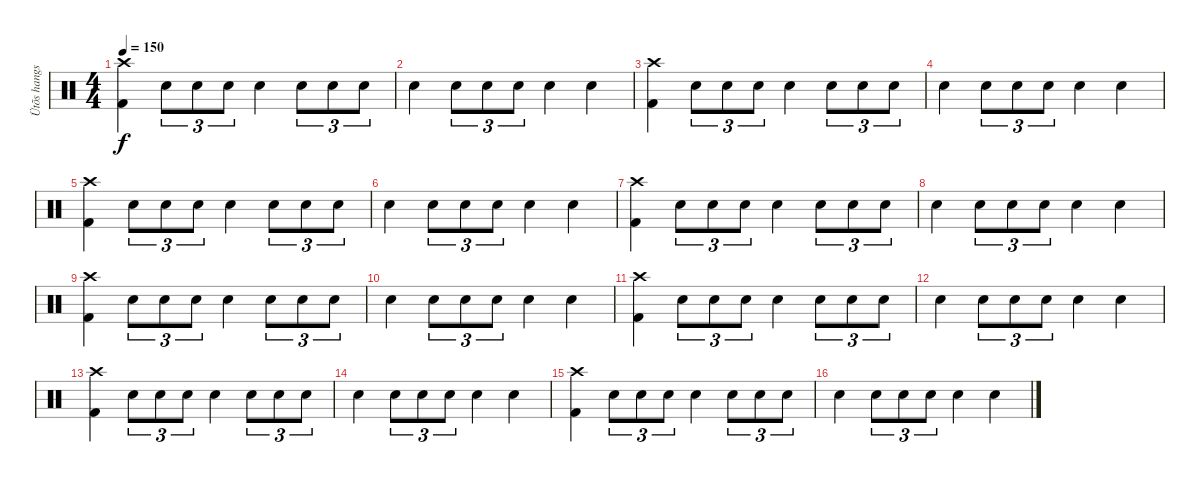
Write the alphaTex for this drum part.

\track ("Ütõs hangszer" "Ütõs hangs") {instrument percussion}
\staff {score}
\articulation defaults
\ts (4 4)
\tempo 150
\clef neutral
\ks c
("Crash high (hit)" "Kick (hit) 2").4{dy f} "Electric Snare (hit)".8{tu (3 2)} "Electric Snare (hit)".8{tu (3 2)} "Electric Snare (hit)".8{tu (3 2)} "Electric Snare (hit)".4 "Electric Snare (hit)".8{tu (3 2)} "Electric Snare (hit)".8{tu (3 2)} "Electric Snare (hit)".8{tu (3 2)} |
"Electric Snare (hit)".4 "Electric Snare (hit)".8{tu (3 2)} "Electric Snare (hit)".8{tu (3 2)} "Electric Snare (hit)".8{tu (3 2)} "Electric Snare (hit)".4 "Electric Snare (hit)".4 |
("Crash high (hit)" "Kick (hit) 2").4 "Electric Snare (hit)".8{tu (3 2)} "Electric Snare (hit)".8{tu (3 2)} "Electric Snare (hit)".8{tu (3 2)} "Electric Snare (hit)".4 "Electric Snare (hit)".8{tu (3 2)} "Electric Snare (hit)".8{tu (3 2)} "Electric Snare (hit)".8{tu (3 2)} |
"Electric Snare (hit)".4 "Electric Snare (hit)".8{tu (3 2)} "Electric Snare (hit)".8{tu (3 2)} "Electric Snare (hit)".8{tu (3 2)} "Electric Snare (hit)".4 "Electric Snare (hit)".4 |
("Crash high (hit)" "Kick (hit) 2").4 "Electric Snare (hit)".8{tu (3 2)} "Electric Snare (hit)".8{tu (3 2)} "Electric Snare (hit)".8{tu (3 2)} "Electric Snare (hit)".4 "Electric Snare (hit)".8{tu (3 2)} "Electric Snare (hit)".8{tu (3 2)} "Electric Snare (hit)".8{tu (3 2)} |
"Electric Snare (hit)".4 "Electric Snare (hit)".8{tu (3 2)} "Electric Snare (hit)".8{tu (3 2)} "Electric Snare (hit)".8{tu (3 2)} "Electric Snare (hit)".4 "Electric Snare (hit)".4 |
("Crash high (hit)" "Kick (hit) 2").4 "Electric Snare (hit)".8{tu (3 2)} "Electric Snare (hit)".8{tu (3 2)} "Electric Snare (hit)".8{tu (3 2)} "Electric Snare (hit)".4 "Electric Snare (hit)".8{tu (3 2)} "Electric Snare (hit)".8{tu (3 2)} "Electric Snare (hit)".8{tu (3 2)} |
"Electric Snare (hit)".4 "Electric Snare (hit)".8{tu (3 2)} "Electric Snare (hit)".8{tu (3 2)} "Electric Snare (hit)".8{tu (3 2)} "Electric Snare (hit)".4 "Electric Snare (hit)".4 |
("Crash high (hit)" "Kick (hit) 2").4 "Electric Snare (hit)".8{tu (3 2)} "Electric Snare (hit)".8{tu (3 2)} "Electric Snare (hit)".8{tu (3 2)} "Electric Snare (hit)".4 "Electric Snare (hit)".8{tu (3 2)} "Electric Snare (hit)".8{tu (3 2)} "Electric Snare (hit)".8{tu (3 2)} |
"Electric Snare (hit)".4 "Electric Snare (hit)".8{tu (3 2)} "Electric Snare (hit)".8{tu (3 2)} "Electric Snare (hit)".8{tu (3 2)} "Electric Snare (hit)".4 "Electric Snare (hit)".4 |
("Crash high (hit)" "Kick (hit) 2").4 "Electric Snare (hit)".8{tu (3 2)} "Electric Snare (hit)".8{tu (3 2)} "Electric Snare (hit)".8{tu (3 2)} "Electric Snare (hit)".4 "Electric Snare (hit)".8{tu (3 2)} "Electric Snare (hit)".8{tu (3 2)} "Electric Snare (hit)".8{tu (3 2)} |
"Electric Snare (hit)".4 "Electric Snare (hit)".8{tu (3 2)} "Electric Snare (hit)".8{tu (3 2)} "Electric Snare (hit)".8{tu (3 2)} "Electric Snare (hit)".4 "Electric Snare (hit)".4 |
("Crash high (hit)" "Kick (hit) 2").4 "Electric Snare (hit)".8{tu (3 2)} "Electric Snare (hit)".8{tu (3 2)} "Electric Snare (hit)".8{tu (3 2)} "Electric Snare (hit)".4 "Electric Snare (hit)".8{tu (3 2)} "Electric Snare (hit)".8{tu (3 2)} "Electric Snare (hit)".8{tu (3 2)} |
"Electric Snare (hit)".4 "Electric Snare (hit)".8{tu (3 2)} "Electric Snare (hit)".8{tu (3 2)} "Electric Snare (hit)".8{tu (3 2)} "Electric Snare (hit)".4 "Electric Snare (hit)".4 |
("Crash high (hit)" "Kick (hit) 2").4 "Electric Snare (hit)".8{tu (3 2)} "Electric Snare (hit)".8{tu (3 2)} "Electric Snare (hit)".8{tu (3 2)} "Electric Snare (hit)".4 "Electric Snare (hit)".8{tu (3 2)} "Electric Snare (hit)".8{tu (3 2)} "Electric Snare (hit)".8{tu (3 2)} |
"Electric Snare (hit)".4 "Electric Snare (hit)".8{tu (3 2)} "Electric Snare (hit)".8{tu (3 2)} "Electric Snare (hit)".8{tu (3 2)} "Electric Snare (hit)".4 "Electric Snare (hit)".4
